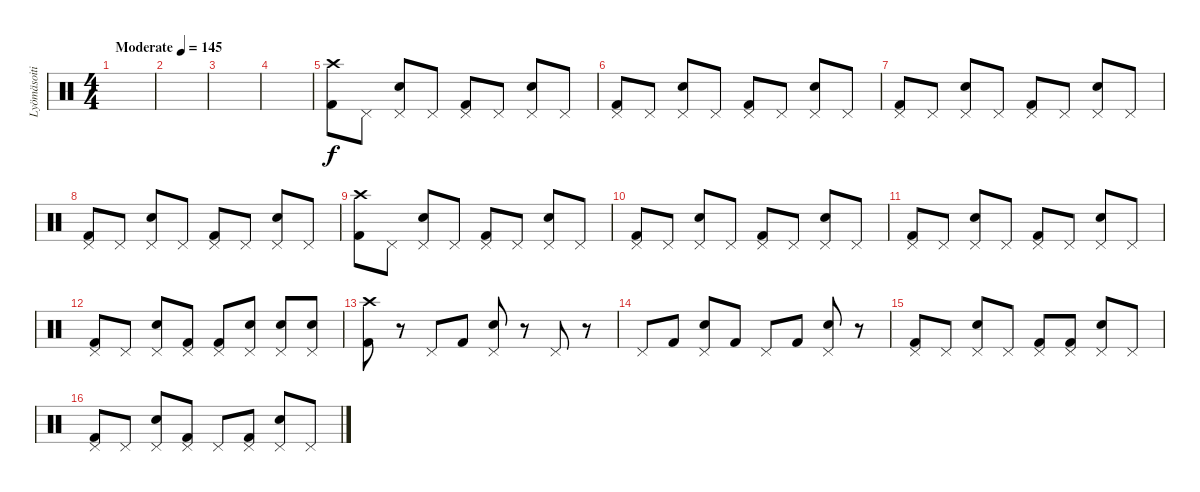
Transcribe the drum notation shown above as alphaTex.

\track ("Lyömäsoitin" "Lyömäsoiti") {instrument percussion}
\staff {score}
\articulation defaults
\ts (4 4)
\tempo (145 "Moderate")
\clef neutral
\ks c
|
|
|
|
("Crash high (hit)" "Kick (hit) 2").8 "Pedal Hi-Hat (hit)".8 ("Pedal Hi-Hat (hit)" "Electric Snare (hit)").8 "Pedal Hi-Hat (hit)".8 ("Pedal Hi-Hat (hit)" "Kick (hit) 2").8 "Pedal Hi-Hat (hit)".8 ("Pedal Hi-Hat (hit)" "Electric Snare (hit)").8 "Pedal Hi-Hat (hit)".8 |
("Pedal Hi-Hat (hit)" "Kick (hit) 2").8 "Pedal Hi-Hat (hit)".8 ("Pedal Hi-Hat (hit)" "Electric Snare (hit)").8 "Pedal Hi-Hat (hit)".8 ("Pedal Hi-Hat (hit)" "Kick (hit) 2").8 "Pedal Hi-Hat (hit)".8 ("Pedal Hi-Hat (hit)" "Electric Snare (hit)").8 "Pedal Hi-Hat (hit)".8 |
("Pedal Hi-Hat (hit)" "Kick (hit) 2").8 "Pedal Hi-Hat (hit)".8 ("Pedal Hi-Hat (hit)" "Electric Snare (hit)").8 "Pedal Hi-Hat (hit)".8 ("Pedal Hi-Hat (hit)" "Kick (hit) 2").8 "Pedal Hi-Hat (hit)".8 ("Pedal Hi-Hat (hit)" "Electric Snare (hit)").8 "Pedal Hi-Hat (hit)".8 |
("Pedal Hi-Hat (hit)" "Kick (hit) 2").8 "Pedal Hi-Hat (hit)".8 ("Pedal Hi-Hat (hit)" "Electric Snare (hit)").8 "Pedal Hi-Hat (hit)".8 ("Pedal Hi-Hat (hit)" "Kick (hit) 2").8 "Pedal Hi-Hat (hit)".8 ("Pedal Hi-Hat (hit)" "Electric Snare (hit)").8 "Pedal Hi-Hat (hit)".8 |
("Crash high (hit)" "Kick (hit) 2").8 "Pedal Hi-Hat (hit)".8 ("Pedal Hi-Hat (hit)" "Electric Snare (hit)").8 "Pedal Hi-Hat (hit)".8 ("Pedal Hi-Hat (hit)" "Kick (hit) 2").8 "Pedal Hi-Hat (hit)".8 ("Pedal Hi-Hat (hit)" "Electric Snare (hit)").8 "Pedal Hi-Hat (hit)".8 |
("Pedal Hi-Hat (hit)" "Kick (hit) 2").8 "Pedal Hi-Hat (hit)".8 ("Pedal Hi-Hat (hit)" "Electric Snare (hit)").8 "Pedal Hi-Hat (hit)".8 ("Pedal Hi-Hat (hit)" "Kick (hit) 2").8 "Pedal Hi-Hat (hit)".8 ("Pedal Hi-Hat (hit)" "Electric Snare (hit)").8 "Pedal Hi-Hat (hit)".8 |
("Pedal Hi-Hat (hit)" "Kick (hit) 2").8 "Pedal Hi-Hat (hit)".8 ("Pedal Hi-Hat (hit)" "Electric Snare (hit)").8 "Pedal Hi-Hat (hit)".8 ("Pedal Hi-Hat (hit)" "Kick (hit) 2").8 "Pedal Hi-Hat (hit)".8 ("Pedal Hi-Hat (hit)" "Electric Snare (hit)").8 "Pedal Hi-Hat (hit)".8 |
("Pedal Hi-Hat (hit)" "Kick (hit) 2").8 "Pedal Hi-Hat (hit)".8 ("Pedal Hi-Hat (hit)" "Electric Snare (hit)").8 ("Pedal Hi-Hat (hit)" "Kick (hit) 2").8 ("Pedal Hi-Hat (hit)" "Kick (hit) 2").8 ("Pedal Hi-Hat (hit)" "Electric Snare (hit)").8 ("Pedal Hi-Hat (hit)" "Electric Snare (hit)").8 ("Pedal Hi-Hat (hit)" "Electric Snare (hit)").8 |
("Crash high (hit)" "Kick (hit) 2").8 r.8 "Pedal Hi-Hat (hit)".8 "Kick (hit) 2".8 ("Pedal Hi-Hat (hit)" "Electric Snare (hit)").8 r.8 "Pedal Hi-Hat (hit)".8 r.8 |
"Pedal Hi-Hat (hit)".8 "Kick (hit) 2".8 ("Pedal Hi-Hat (hit)" "Electric Snare (hit)").8 "Kick (hit) 2".8 "Pedal Hi-Hat (hit)".8 "Kick (hit) 2".8 ("Pedal Hi-Hat (hit)" "Electric Snare (hit)").8 r.8 |
("Pedal Hi-Hat (hit)" "Kick (hit) 2").8 "Pedal Hi-Hat (hit)".8 ("Pedal Hi-Hat (hit)" "Electric Snare (hit)").8 "Pedal Hi-Hat (hit)".8 ("Pedal Hi-Hat (hit)" "Kick (hit) 2").8 ("Pedal Hi-Hat (hit)" "Kick (hit) 2").8 ("Pedal Hi-Hat (hit)" "Electric Snare (hit)").8 "Pedal Hi-Hat (hit)".8 |
("Pedal Hi-Hat (hit)" "Kick (hit) 2").8 "Pedal Hi-Hat (hit)".8 ("Pedal Hi-Hat (hit)" "Electric Snare (hit)").8 ("Pedal Hi-Hat (hit)" "Kick (hit) 2").8 "Pedal Hi-Hat (hit)".8 ("Pedal Hi-Hat (hit)" "Kick (hit) 2").8 ("Pedal Hi-Hat (hit)" "Electric Snare (hit)").8 "Pedal Hi-Hat (hit)".8
